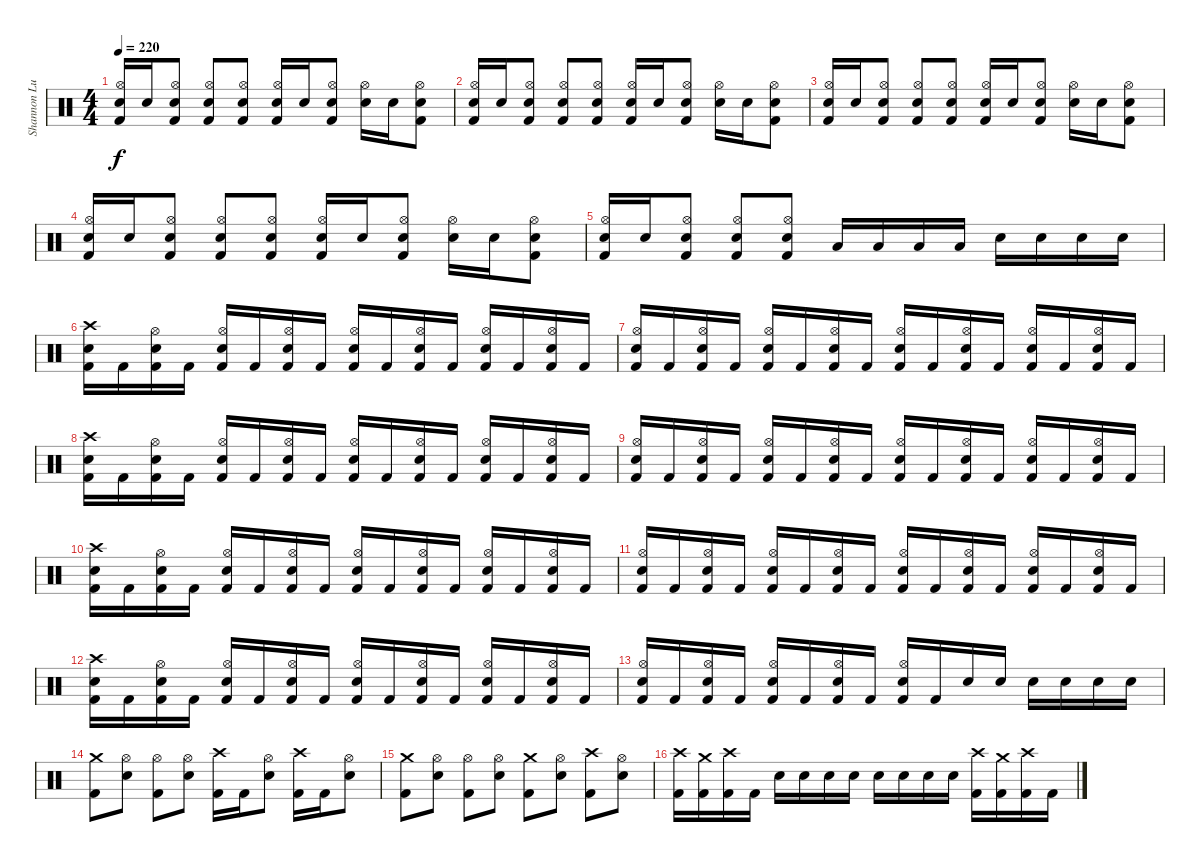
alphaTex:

\track ("Shannon Lucas (Drums)" "Shannon Lu") {instrument percussion}
\staff {score}
\articulation defaults
\ts (4 4)
\tempo 220
\clef neutral
\ks c
("Kick (hit) 2" "Hi-Hat (open)" "Snare (hit) 2").16{dy f} "Snare (hit) 2".16 ("Kick (hit) 2" "Hi-Hat (open)" "Snare (hit) 2").8 ("Kick (hit) 2" "Hi-Hat (open)" "Snare (hit) 2").8 ("Kick (hit) 2" "Hi-Hat (open)" "Snare (hit) 2").8 ("Kick (hit) 2" "Hi-Hat (open)" "Snare (hit) 2").16 "Snare (hit) 2".16 ("Kick (hit) 2" "Hi-Hat (open)" "Snare (hit) 2").8 ("Hi-Hat (open)" "Snare (hit) 2").16 "Snare (hit) 2".16 ("Kick (hit) 2" "Hi-Hat (open)" "Snare (hit) 2").8 |
("Kick (hit) 2" "Hi-Hat (open)" "Snare (hit) 2").16 "Snare (hit) 2".16 ("Kick (hit) 2" "Hi-Hat (open)" "Snare (hit) 2").8 ("Kick (hit) 2" "Hi-Hat (open)" "Snare (hit) 2").8 ("Kick (hit) 2" "Hi-Hat (open)" "Snare (hit) 2").8 ("Kick (hit) 2" "Hi-Hat (open)" "Snare (hit) 2").16 "Snare (hit) 2".16 ("Kick (hit) 2" "Hi-Hat (open)" "Snare (hit) 2").8 ("Hi-Hat (open)" "Snare (hit) 2").16 "Snare (hit) 2".16 ("Kick (hit) 2" "Hi-Hat (open)" "Snare (hit) 2").8 |
("Kick (hit) 2" "Hi-Hat (open)" "Snare (hit) 2").16 "Snare (hit) 2".16 ("Kick (hit) 2" "Hi-Hat (open)" "Snare (hit) 2").8 ("Kick (hit) 2" "Hi-Hat (open)" "Snare (hit) 2").8 ("Kick (hit) 2" "Hi-Hat (open)" "Snare (hit) 2").8 ("Kick (hit) 2" "Hi-Hat (open)" "Snare (hit) 2").16 "Snare (hit) 2".16 ("Kick (hit) 2" "Hi-Hat (open)" "Snare (hit) 2").8 ("Hi-Hat (open)" "Snare (hit) 2").16 "Snare (hit) 2".16 ("Kick (hit) 2" "Hi-Hat (open)" "Snare (hit) 2").8 |
("Kick (hit) 2" "Hi-Hat (open)" "Snare (hit) 2").16 "Snare (hit) 2".16 ("Kick (hit) 2" "Hi-Hat (open)" "Snare (hit) 2").8 ("Kick (hit) 2" "Hi-Hat (open)" "Snare (hit) 2").8 ("Kick (hit) 2" "Hi-Hat (open)" "Snare (hit) 2").8 ("Kick (hit) 2" "Hi-Hat (open)" "Snare (hit) 2").16 "Snare (hit) 2".16 ("Kick (hit) 2" "Hi-Hat (open)" "Snare (hit) 2").8 ("Hi-Hat (open)" "Snare (hit) 2").16 "Snare (hit) 2".16 ("Kick (hit) 2" "Hi-Hat (open)" "Snare (hit) 2").8 |
("Kick (hit) 2" "Hi-Hat (open)" "Snare (hit) 2").16 "Snare (hit) 2".16 ("Kick (hit) 2" "Hi-Hat (open)" "Snare (hit) 2").8 ("Kick (hit) 2" "Hi-Hat (open)" "Snare (hit) 2").8 ("Kick (hit) 2" "Hi-Hat (open)" "Snare (hit) 2").8 "Low Tom (hit)".16 "Low Tom (hit)".16 "Low Tom (hit)".16 "Low Tom (hit)".16 "Snare (hit) 2".16 "Snare (hit) 2".16 "Snare (hit) 2".16 "Snare (hit) 2".16 |
("Crash high (hit)" "Snare (hit) 2" "Kick (hit) 2").16 "Kick (hit) 2".16 ("Hi-Hat (open)" "Snare (hit) 2" "Kick (hit) 2").16 "Kick (hit) 2".16 ("Hi-Hat (open)" "Snare (hit) 2" "Kick (hit) 2").16 "Kick (hit) 2".16 ("Hi-Hat (open)" "Snare (hit) 2" "Kick (hit) 2").16 "Kick (hit) 2".16 ("Hi-Hat (open)" "Snare (hit) 2" "Kick (hit) 2").16 "Kick (hit) 2".16 ("Hi-Hat (open)" "Snare (hit) 2" "Kick (hit) 2").16 "Kick (hit) 2".16 ("Hi-Hat (open)" "Snare (hit) 2" "Kick (hit) 2").16 "Kick (hit) 2".16 ("Hi-Hat (open)" "Snare (hit) 2" "Kick (hit) 2").16 "Kick (hit) 2".16 |
("Hi-Hat (open)" "Snare (hit) 2" "Kick (hit) 2").16 "Kick (hit) 2".16 ("Hi-Hat (open)" "Snare (hit) 2" "Kick (hit) 2").16 "Kick (hit) 2".16 ("Hi-Hat (open)" "Snare (hit) 2" "Kick (hit) 2").16 "Kick (hit) 2".16 ("Hi-Hat (open)" "Snare (hit) 2" "Kick (hit) 2").16 "Kick (hit) 2".16 ("Hi-Hat (open)" "Snare (hit) 2" "Kick (hit) 2").16 "Kick (hit) 2".16 ("Hi-Hat (open)" "Snare (hit) 2" "Kick (hit) 2").16 "Kick (hit) 2".16 ("Hi-Hat (open)" "Snare (hit) 2" "Kick (hit) 2").16 "Kick (hit) 2".16 ("Hi-Hat (open)" "Snare (hit) 2" "Kick (hit) 2").16 "Kick (hit) 2".16 |
("Crash high (hit)" "Snare (hit) 2" "Kick (hit) 2").16 "Kick (hit) 2".16 ("Hi-Hat (open)" "Snare (hit) 2" "Kick (hit) 2").16 "Kick (hit) 2".16 ("Hi-Hat (open)" "Snare (hit) 2" "Kick (hit) 2").16 "Kick (hit) 2".16 ("Hi-Hat (open)" "Snare (hit) 2" "Kick (hit) 2").16 "Kick (hit) 2".16 ("Hi-Hat (open)" "Snare (hit) 2" "Kick (hit) 2").16 "Kick (hit) 2".16 ("Hi-Hat (open)" "Snare (hit) 2" "Kick (hit) 2").16 "Kick (hit) 2".16 ("Hi-Hat (open)" "Snare (hit) 2" "Kick (hit) 2").16 "Kick (hit) 2".16 ("Hi-Hat (open)" "Snare (hit) 2" "Kick (hit) 2").16 "Kick (hit) 2".16 |
("Hi-Hat (open)" "Snare (hit) 2" "Kick (hit) 2").16 "Kick (hit) 2".16 ("Hi-Hat (open)" "Snare (hit) 2" "Kick (hit) 2").16 "Kick (hit) 2".16 ("Hi-Hat (open)" "Snare (hit) 2" "Kick (hit) 2").16 "Kick (hit) 2".16 ("Hi-Hat (open)" "Snare (hit) 2" "Kick (hit) 2").16 "Kick (hit) 2".16 ("Hi-Hat (open)" "Snare (hit) 2" "Kick (hit) 2").16 "Kick (hit) 2".16 ("Hi-Hat (open)" "Snare (hit) 2" "Kick (hit) 2").16 "Kick (hit) 2".16 ("Hi-Hat (open)" "Snare (hit) 2" "Kick (hit) 2").16 "Kick (hit) 2".16 ("Hi-Hat (open)" "Snare (hit) 2" "Kick (hit) 2").16 "Kick (hit) 2".16 |
("Crash high (hit)" "Snare (hit) 2" "Kick (hit) 2").16 "Kick (hit) 2".16 ("Hi-Hat (open)" "Snare (hit) 2" "Kick (hit) 2").16 "Kick (hit) 2".16 ("Hi-Hat (open)" "Snare (hit) 2" "Kick (hit) 2").16 "Kick (hit) 2".16 ("Hi-Hat (open)" "Snare (hit) 2" "Kick (hit) 2").16 "Kick (hit) 2".16 ("Hi-Hat (open)" "Snare (hit) 2" "Kick (hit) 2").16 "Kick (hit) 2".16 ("Hi-Hat (open)" "Snare (hit) 2" "Kick (hit) 2").16 "Kick (hit) 2".16 ("Hi-Hat (open)" "Snare (hit) 2" "Kick (hit) 2").16 "Kick (hit) 2".16 ("Hi-Hat (open)" "Snare (hit) 2" "Kick (hit) 2").16 "Kick (hit) 2".16 |
("Hi-Hat (open)" "Snare (hit) 2" "Kick (hit) 2").16 "Kick (hit) 2".16 ("Hi-Hat (open)" "Snare (hit) 2" "Kick (hit) 2").16 "Kick (hit) 2".16 ("Hi-Hat (open)" "Snare (hit) 2" "Kick (hit) 2").16 "Kick (hit) 2".16 ("Hi-Hat (open)" "Snare (hit) 2" "Kick (hit) 2").16 "Kick (hit) 2".16 ("Hi-Hat (open)" "Snare (hit) 2" "Kick (hit) 2").16 "Kick (hit) 2".16 ("Hi-Hat (open)" "Snare (hit) 2" "Kick (hit) 2").16 "Kick (hit) 2".16 ("Hi-Hat (open)" "Snare (hit) 2" "Kick (hit) 2").16 "Kick (hit) 2".16 ("Hi-Hat (open)" "Snare (hit) 2" "Kick (hit) 2").16 "Kick (hit) 2".16 |
("Crash high (hit)" "Snare (hit) 2" "Kick (hit) 2").16 "Kick (hit) 2".16 ("Hi-Hat (open)" "Snare (hit) 2" "Kick (hit) 2").16 "Kick (hit) 2".16 ("Hi-Hat (open)" "Snare (hit) 2" "Kick (hit) 2").16 "Kick (hit) 2".16 ("Hi-Hat (open)" "Snare (hit) 2" "Kick (hit) 2").16 "Kick (hit) 2".16 ("Hi-Hat (open)" "Snare (hit) 2" "Kick (hit) 2").16 "Kick (hit) 2".16 ("Hi-Hat (open)" "Snare (hit) 2" "Kick (hit) 2").16 "Kick (hit) 2".16 ("Hi-Hat (open)" "Snare (hit) 2" "Kick (hit) 2").16 "Kick (hit) 2".16 ("Hi-Hat (open)" "Snare (hit) 2" "Kick (hit) 2").16 "Kick (hit) 2".16 |
("Hi-Hat (open)" "Snare (hit) 2" "Kick (hit) 2").16 "Kick (hit) 2".16 ("Hi-Hat (open)" "Snare (hit) 2" "Kick (hit) 2").16 "Kick (hit) 2".16 ("Hi-Hat (open)" "Snare (hit) 2" "Kick (hit) 2").16 "Kick (hit) 2".16 ("Hi-Hat (open)" "Snare (hit) 2" "Kick (hit) 2").16 "Kick (hit) 2".16 ("Hi-Hat (open)" "Snare (hit) 2" "Kick (hit) 2").16 "Kick (hit) 2".16 "Snare (hit) 2".16 "Snare (hit) 2".16 "Snare (hit) 2".16 "Snare (hit) 2".16 "Snare (hit) 2".16 "Snare (hit) 2".16 |
("Crash medium (hit)" "Kick (hit) 2").8 ("Hi-Hat (open)" "Snare (hit) 2").8 ("Hi-Hat (open)" "Kick (hit) 2").8 ("Hi-Hat (open)" "Snare (hit) 2").8 ("Crash high (hit)" "Kick (hit) 2").16 "Kick (hit) 2".16 ("Hi-Hat (open)" "Snare (hit) 2").8 ("Crash high (hit)" "Kick (hit) 2").16 "Kick (hit) 2".16 ("Hi-Hat (open)" "Snare (hit) 2").8 |
("Crash medium (hit)" "Kick (hit) 2").8 ("Hi-Hat (open)" "Snare (hit) 2").8 ("Hi-Hat (open)" "Kick (hit) 2").8 ("Hi-Hat (open)" "Snare (hit) 2").8 ("Crash medium (hit)" "Kick (hit) 2").8 ("Hi-Hat (open)" "Snare (hit) 2").8 ("Crash high (hit)" "Kick (hit) 2").8 ("Hi-Hat (open)" "Snare (hit) 2").8 |
("Crash high (hit)" "Kick (hit) 2").16 ("Crash medium (hit)" "Kick (hit) 2").16 ("Crash high (hit)" "Kick (hit) 2").16 "Kick (hit) 2".16 "Snare (hit) 2".16 "Snare (hit) 2".16 "Snare (hit) 2".16 "Snare (hit) 2".16 "Snare (hit) 2".16 "Snare (hit) 2".16 "Snare (hit) 2".16 "Snare (hit) 2".16 ("Crash high (hit)" "Kick (hit) 2").16 ("Crash medium (hit)" "Kick (hit) 2").16 ("Crash high (hit)" "Kick (hit) 2").16 "Kick (hit) 2".16
